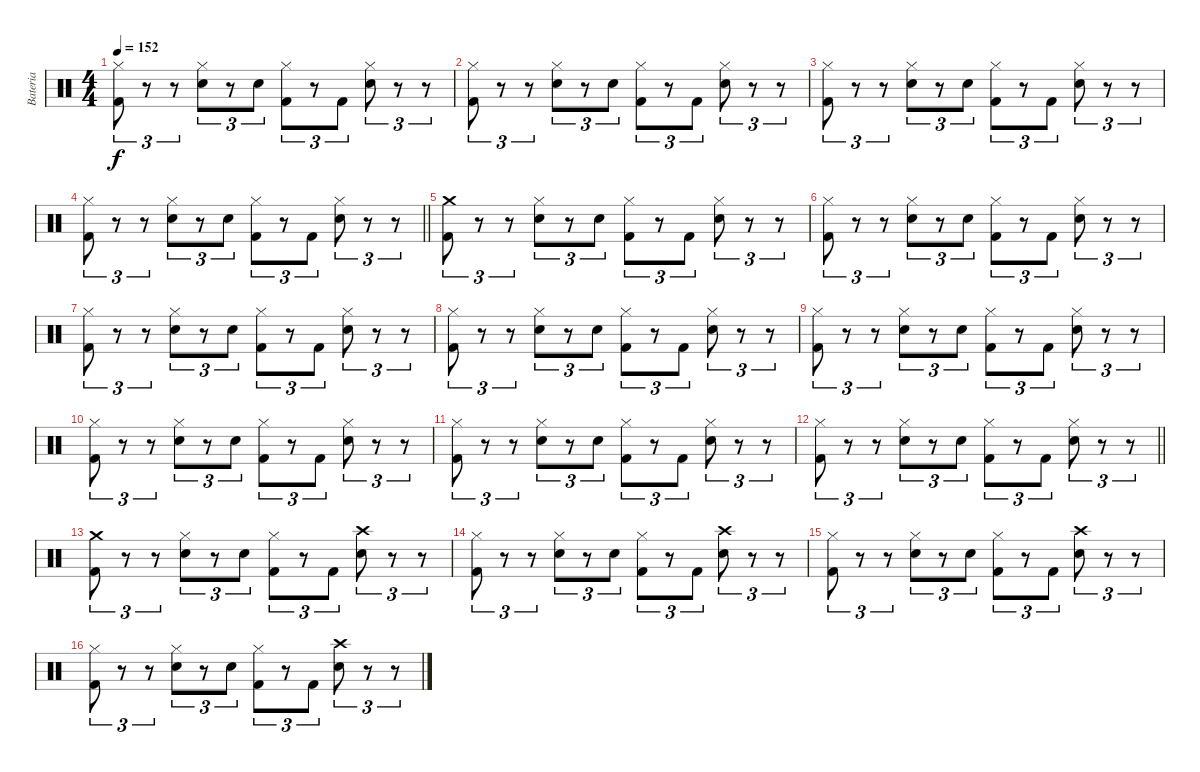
\track ("Bateria" "Bateria") {instrument percussion}
\staff {score}
\articulation defaults
\ts (4 4)
\tempo 152
\clef neutral
\ks c
("Hi-Hat (closed)" "Kick (hit) 2").8{tu (3 2) dy f} r.8{tu (3 2)} r.8{tu (3 2)} ("Hi-Hat (closed)" "Snare (hit) 2").8{tu (3 2)} r.8{tu (3 2)} "Snare (hit) 2".8{tu (3 2)} ("Hi-Hat (closed)" "Kick (hit) 2").8{tu (3 2)} r.8{tu (3 2)} "Kick (hit) 2".8{tu (3 2)} ("Hi-Hat (closed)" "Snare (hit) 2").8{tu (3 2)} r.8{tu (3 2)} r.8{tu (3 2)} |
("Hi-Hat (closed)" "Kick (hit) 2").8{tu (3 2)} r.8{tu (3 2)} r.8{tu (3 2)} ("Hi-Hat (closed)" "Snare (hit) 2").8{tu (3 2)} r.8{tu (3 2)} "Snare (hit) 2".8{tu (3 2)} ("Hi-Hat (closed)" "Kick (hit) 2").8{tu (3 2)} r.8{tu (3 2)} "Kick (hit) 2".8{tu (3 2)} ("Hi-Hat (closed)" "Snare (hit) 2").8{tu (3 2)} r.8{tu (3 2)} r.8{tu (3 2)} |
("Hi-Hat (closed)" "Kick (hit) 2").8{tu (3 2)} r.8{tu (3 2)} r.8{tu (3 2)} ("Hi-Hat (closed)" "Snare (hit) 2").8{tu (3 2)} r.8{tu (3 2)} "Snare (hit) 2".8{tu (3 2)} ("Hi-Hat (closed)" "Kick (hit) 2").8{tu (3 2)} r.8{tu (3 2)} "Kick (hit) 2".8{tu (3 2)} ("Hi-Hat (closed)" "Snare (hit) 2").8{tu (3 2)} r.8{tu (3 2)} r.8{tu (3 2)} |
\barLineRight lightlight
("Hi-Hat (closed)" "Kick (hit) 2").8{tu (3 2)} r.8{tu (3 2)} r.8{tu (3 2)} ("Hi-Hat (closed)" "Snare (hit) 2").8{tu (3 2)} r.8{tu (3 2)} "Snare (hit) 2".8{tu (3 2)} ("Hi-Hat (closed)" "Kick (hit) 2").8{tu (3 2)} r.8{tu (3 2)} "Kick (hit) 2".8{tu (3 2)} ("Hi-Hat (closed)" "Snare (hit) 2").8{tu (3 2)} r.8{tu (3 2)} r.8{tu (3 2)} |
("Crash medium (hit)" "Kick (hit) 2").8{tu (3 2)} r.8{tu (3 2)} r.8{tu (3 2)} ("Hi-Hat (closed)" "Snare (hit) 2").8{tu (3 2)} r.8{tu (3 2)} "Snare (hit) 2".8{tu (3 2)} ("Hi-Hat (closed)" "Kick (hit) 2").8{tu (3 2)} r.8{tu (3 2)} "Kick (hit) 2".8{tu (3 2)} ("Hi-Hat (closed)" "Snare (hit) 2").8{tu (3 2)} r.8{tu (3 2)} r.8{tu (3 2)} |
("Hi-Hat (closed)" "Kick (hit) 2").8{tu (3 2)} r.8{tu (3 2)} r.8{tu (3 2)} ("Hi-Hat (closed)" "Snare (hit) 2").8{tu (3 2)} r.8{tu (3 2)} "Snare (hit) 2".8{tu (3 2)} ("Hi-Hat (closed)" "Kick (hit) 2").8{tu (3 2)} r.8{tu (3 2)} "Kick (hit) 2".8{tu (3 2)} ("Hi-Hat (closed)" "Snare (hit) 2").8{tu (3 2)} r.8{tu (3 2)} r.8{tu (3 2)} |
("Hi-Hat (closed)" "Kick (hit) 2").8{tu (3 2)} r.8{tu (3 2)} r.8{tu (3 2)} ("Hi-Hat (closed)" "Snare (hit) 2").8{tu (3 2)} r.8{tu (3 2)} "Snare (hit) 2".8{tu (3 2)} ("Hi-Hat (closed)" "Kick (hit) 2").8{tu (3 2)} r.8{tu (3 2)} "Kick (hit) 2".8{tu (3 2)} ("Hi-Hat (closed)" "Snare (hit) 2").8{tu (3 2)} r.8{tu (3 2)} r.8{tu (3 2)} |
("Hi-Hat (closed)" "Kick (hit) 2").8{tu (3 2)} r.8{tu (3 2)} r.8{tu (3 2)} ("Hi-Hat (closed)" "Snare (hit) 2").8{tu (3 2)} r.8{tu (3 2)} "Snare (hit) 2".8{tu (3 2)} ("Hi-Hat (closed)" "Kick (hit) 2").8{tu (3 2)} r.8{tu (3 2)} "Kick (hit) 2".8{tu (3 2)} ("Hi-Hat (closed)" "Snare (hit) 2").8{tu (3 2)} r.8{tu (3 2)} r.8{tu (3 2)} |
("Hi-Hat (closed)" "Kick (hit) 2").8{tu (3 2)} r.8{tu (3 2)} r.8{tu (3 2)} ("Hi-Hat (closed)" "Snare (hit) 2").8{tu (3 2)} r.8{tu (3 2)} "Snare (hit) 2".8{tu (3 2)} ("Hi-Hat (closed)" "Kick (hit) 2").8{tu (3 2)} r.8{tu (3 2)} "Kick (hit) 2".8{tu (3 2)} ("Hi-Hat (closed)" "Snare (hit) 2").8{tu (3 2)} r.8{tu (3 2)} r.8{tu (3 2)} |
("Hi-Hat (closed)" "Kick (hit) 2").8{tu (3 2)} r.8{tu (3 2)} r.8{tu (3 2)} ("Hi-Hat (closed)" "Snare (hit) 2").8{tu (3 2)} r.8{tu (3 2)} "Snare (hit) 2".8{tu (3 2)} ("Hi-Hat (closed)" "Kick (hit) 2").8{tu (3 2)} r.8{tu (3 2)} "Kick (hit) 2".8{tu (3 2)} ("Hi-Hat (closed)" "Snare (hit) 2").8{tu (3 2)} r.8{tu (3 2)} r.8{tu (3 2)} |
("Hi-Hat (closed)" "Kick (hit) 2").8{tu (3 2)} r.8{tu (3 2)} r.8{tu (3 2)} ("Hi-Hat (closed)" "Snare (hit) 2").8{tu (3 2)} r.8{tu (3 2)} "Snare (hit) 2".8{tu (3 2)} ("Hi-Hat (closed)" "Kick (hit) 2").8{tu (3 2)} r.8{tu (3 2)} "Kick (hit) 2".8{tu (3 2)} ("Hi-Hat (closed)" "Snare (hit) 2").8{tu (3 2)} r.8{tu (3 2)} r.8{tu (3 2)} |
\barLineRight lightlight
("Hi-Hat (closed)" "Kick (hit) 2").8{tu (3 2)} r.8{tu (3 2)} r.8{tu (3 2)} ("Hi-Hat (closed)" "Snare (hit) 2").8{tu (3 2)} r.8{tu (3 2)} "Snare (hit) 2".8{tu (3 2)} ("Hi-Hat (closed)" "Kick (hit) 2").8{tu (3 2)} r.8{tu (3 2)} "Kick (hit) 2".8{tu (3 2)} ("Hi-Hat (closed)" "Snare (hit) 2").8{tu (3 2)} r.8{tu (3 2)} r.8{tu (3 2)} |
("Crash medium (hit)" "Kick (hit) 2").8{tu (3 2)} r.8{tu (3 2)} r.8{tu (3 2)} ("Hi-Hat (closed)" "Snare (hit) 2").8{tu (3 2)} r.8{tu (3 2)} "Snare (hit) 2".8{tu (3 2)} ("Hi-Hat (closed)" "Kick (hit) 2").8{tu (3 2)} r.8{tu (3 2)} "Kick (hit) 2".8{tu (3 2)} ("Crash high (hit)" "Snare (hit) 2").8{tu (3 2)} r.8{tu (3 2)} r.8{tu (3 2)} |
("Hi-Hat (closed)" "Kick (hit) 2").8{tu (3 2)} r.8{tu (3 2)} r.8{tu (3 2)} ("Hi-Hat (closed)" "Snare (hit) 2").8{tu (3 2)} r.8{tu (3 2)} "Snare (hit) 2".8{tu (3 2)} ("Hi-Hat (closed)" "Kick (hit) 2").8{tu (3 2)} r.8{tu (3 2)} "Kick (hit) 2".8{tu (3 2)} ("Crash high (hit)" "Snare (hit) 2").8{tu (3 2)} r.8{tu (3 2)} r.8{tu (3 2)} |
("Hi-Hat (closed)" "Kick (hit) 2").8{tu (3 2)} r.8{tu (3 2)} r.8{tu (3 2)} ("Hi-Hat (closed)" "Snare (hit) 2").8{tu (3 2)} r.8{tu (3 2)} "Snare (hit) 2".8{tu (3 2)} ("Hi-Hat (closed)" "Kick (hit) 2").8{tu (3 2)} r.8{tu (3 2)} "Kick (hit) 2".8{tu (3 2)} ("Crash high (hit)" "Snare (hit) 2").8{tu (3 2)} r.8{tu (3 2)} r.8{tu (3 2)} |
("Hi-Hat (closed)" "Kick (hit) 2").8{tu (3 2)} r.8{tu (3 2)} r.8{tu (3 2)} ("Hi-Hat (closed)" "Snare (hit) 2").8{tu (3 2)} r.8{tu (3 2)} "Snare (hit) 2".8{tu (3 2)} ("Hi-Hat (closed)" "Kick (hit) 2").8{tu (3 2)} r.8{tu (3 2)} "Kick (hit) 2".8{tu (3 2)} ("Crash high (hit)" "Snare (hit) 2").8{tu (3 2)} r.8{tu (3 2)} r.8{tu (3 2)}
